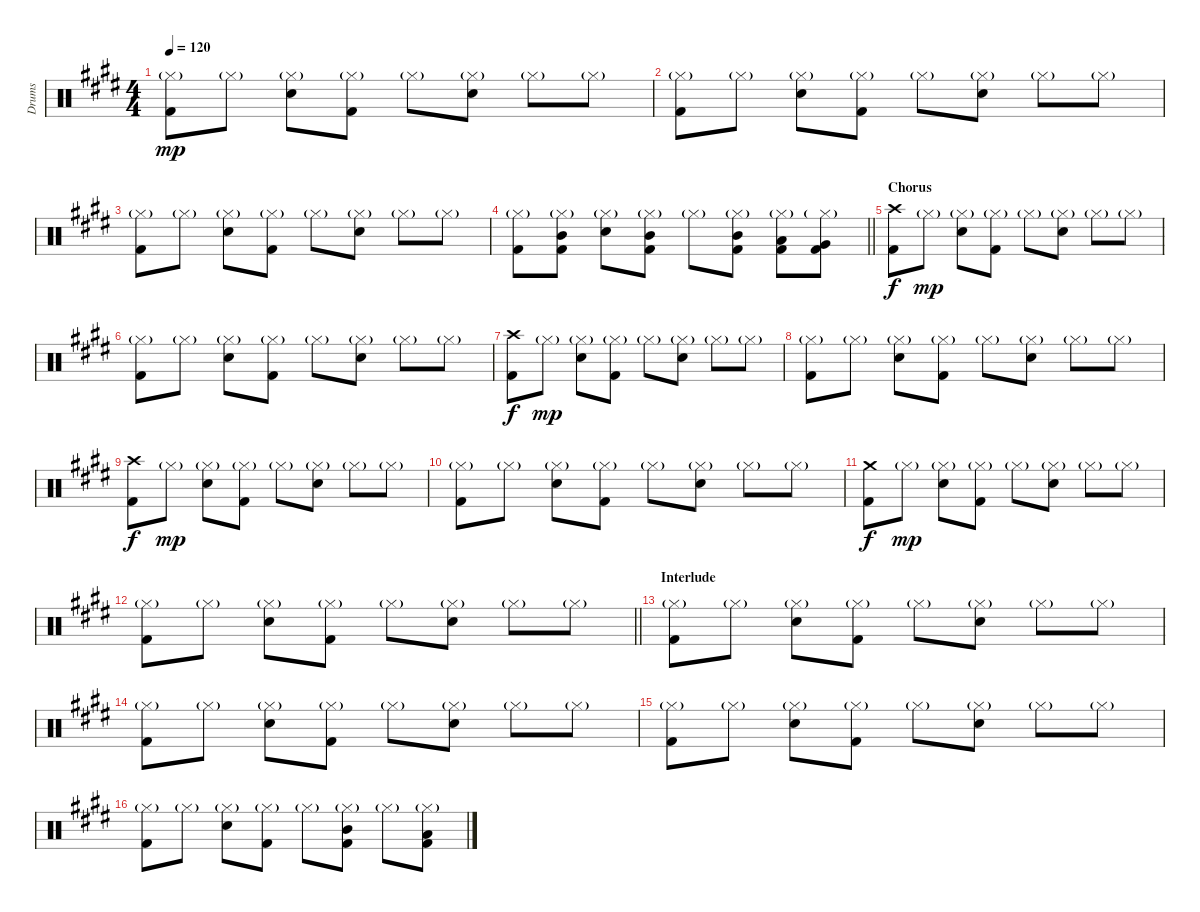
\track ("Drums" "Drums") {instrument percussion}
\staff {score}
\articulation defaults
\ts (4 4)
\tempo 120
\clef neutral
\ks e
("Hi-Hat (closed)"{g} "Kick (hit) 2").8{dy mp} "Hi-Hat (closed)"{g}.8 ("Hi-Hat (closed)"{g} "Snare (hit) 2").8 ("Hi-Hat (closed)"{g} "Kick (hit) 2").8 "Hi-Hat (closed)"{g}.8 ("Hi-Hat (closed)"{g} "Snare (hit) 2").8 "Hi-Hat (closed)"{g}.8 "Hi-Hat (closed)"{g}.8 |
("Hi-Hat (closed)"{g} "Kick (hit) 2").8 "Hi-Hat (closed)"{g}.8 ("Hi-Hat (closed)"{g} "Snare (hit) 2").8 ("Hi-Hat (closed)"{g} "Kick (hit) 2").8 "Hi-Hat (closed)"{g}.8 ("Hi-Hat (closed)"{g} "Snare (hit) 2").8 "Hi-Hat (closed)"{g}.8 "Hi-Hat (closed)"{g}.8 |
("Hi-Hat (closed)"{g} "Kick (hit) 2").8 "Hi-Hat (closed)"{g}.8 ("Hi-Hat (closed)"{g} "Snare (hit) 2").8 ("Hi-Hat (closed)"{g} "Kick (hit) 2").8 "Hi-Hat (closed)"{g}.8 ("Hi-Hat (closed)"{g} "Snare (hit) 2").8 "Hi-Hat (closed)"{g}.8 "Hi-Hat (closed)"{g}.8 |
\barLineRight lightlight
("Hi-Hat (closed)"{g} "Kick (hit) 2").8 ("Hi-Hat (closed)"{g} "Mid Tom (hit)" "Kick (hit) 2").8 ("Hi-Hat (closed)"{g} "Snare (hit) 2").8 ("Hi-Hat (closed)"{g} "Mid Tom (hit)" "Kick (hit) 2").8 "Hi-Hat (closed)"{g}.8 ("Hi-Hat (closed)"{g} "Mid Tom (hit)" "Kick (hit) 2").8 ("Hi-Hat (closed)"{g} "Low Tom (hit)" "Kick (hit) 2").8 ("Hi-Hat (closed)"{g} "Very Low Tom (hit)" "Kick (hit) 2").8 |
\section ("" "Chorus")
("Crash high (hit)" "Kick (hit) 2").8{dy f} "Hi-Hat (closed)"{g}.8{dy mp} ("Hi-Hat (closed)"{g} "Snare (hit) 2").8 ("Hi-Hat (closed)"{g} "Kick (hit) 2").8 "Hi-Hat (closed)"{g}.8 ("Hi-Hat (closed)"{g} "Snare (hit) 2").8 "Hi-Hat (closed)"{g}.8 "Hi-Hat (closed)"{g}.8 |
("Hi-Hat (closed)"{g} "Kick (hit) 2").8 "Hi-Hat (closed)"{g}.8 ("Hi-Hat (closed)"{g} "Snare (hit) 2").8 ("Hi-Hat (closed)"{g} "Kick (hit) 2").8 "Hi-Hat (closed)"{g}.8 ("Hi-Hat (closed)"{g} "Snare (hit) 2").8 "Hi-Hat (closed)"{g}.8 "Hi-Hat (closed)"{g}.8 |
("Crash high (hit)" "Kick (hit) 2").8{dy f} "Hi-Hat (closed)"{g}.8{dy mp} ("Hi-Hat (closed)"{g} "Snare (hit) 2").8 ("Hi-Hat (closed)"{g} "Kick (hit) 2").8 "Hi-Hat (closed)"{g}.8 ("Hi-Hat (closed)"{g} "Snare (hit) 2").8 "Hi-Hat (closed)"{g}.8 "Hi-Hat (closed)"{g}.8 |
("Hi-Hat (closed)"{g} "Kick (hit) 2").8 "Hi-Hat (closed)"{g}.8 ("Hi-Hat (closed)"{g} "Snare (hit) 2").8 ("Hi-Hat (closed)"{g} "Kick (hit) 2").8 "Hi-Hat (closed)"{g}.8 ("Hi-Hat (closed)"{g} "Snare (hit) 2").8 "Hi-Hat (closed)"{g}.8 "Hi-Hat (closed)"{g}.8 |
("Crash high (hit)" "Kick (hit) 2").8{dy f} "Hi-Hat (closed)"{g}.8{dy mp} ("Hi-Hat (closed)"{g} "Snare (hit) 2").8 ("Hi-Hat (closed)"{g} "Kick (hit) 2").8 "Hi-Hat (closed)"{g}.8 ("Hi-Hat (closed)"{g} "Snare (hit) 2").8 "Hi-Hat (closed)"{g}.8 "Hi-Hat (closed)"{g}.8 |
("Hi-Hat (closed)"{g} "Kick (hit) 2").8 "Hi-Hat (closed)"{g}.8 ("Hi-Hat (closed)"{g} "Snare (hit) 2").8 ("Hi-Hat (closed)"{g} "Kick (hit) 2").8 "Hi-Hat (closed)"{g}.8 ("Hi-Hat (closed)"{g} "Snare (hit) 2").8 "Hi-Hat (closed)"{g}.8 "Hi-Hat (closed)"{g}.8 |
("Crash medium (hit)" "Kick (hit) 2").8{dy f} "Hi-Hat (closed)"{g}.8{dy mp} ("Hi-Hat (closed)"{g} "Snare (hit) 2").8 ("Hi-Hat (closed)"{g} "Kick (hit) 2").8 "Hi-Hat (closed)"{g}.8 ("Hi-Hat (closed)"{g} "Snare (hit) 2").8 "Hi-Hat (closed)"{g}.8 "Hi-Hat (closed)"{g}.8 |
\barLineRight lightlight
("Hi-Hat (closed)"{g} "Kick (hit) 2").8 "Hi-Hat (closed)"{g}.8 ("Hi-Hat (closed)"{g} "Snare (hit) 2").8 ("Hi-Hat (closed)"{g} "Kick (hit) 2").8 "Hi-Hat (closed)"{g}.8 ("Hi-Hat (closed)"{g} "Snare (hit) 2").8 "Hi-Hat (closed)"{g}.8 "Hi-Hat (closed)"{g}.8 |
\section ("" "Interlude")
("Hi-Hat (closed)"{g} "Kick (hit) 2").8 "Hi-Hat (closed)"{g}.8 ("Hi-Hat (closed)"{g} "Snare (hit) 2").8 ("Hi-Hat (closed)"{g} "Kick (hit) 2").8 "Hi-Hat (closed)"{g}.8 ("Hi-Hat (closed)"{g} "Snare (hit) 2").8 "Hi-Hat (closed)"{g}.8 "Hi-Hat (closed)"{g}.8 |
("Hi-Hat (closed)"{g} "Kick (hit) 2").8 "Hi-Hat (closed)"{g}.8 ("Hi-Hat (closed)"{g} "Snare (hit) 2").8 ("Hi-Hat (closed)"{g} "Kick (hit) 2").8 "Hi-Hat (closed)"{g}.8 ("Hi-Hat (closed)"{g} "Snare (hit) 2").8 "Hi-Hat (closed)"{g}.8 "Hi-Hat (closed)"{g}.8 |
("Hi-Hat (closed)"{g} "Kick (hit) 2").8 "Hi-Hat (closed)"{g}.8 ("Hi-Hat (closed)"{g} "Snare (hit) 2").8 ("Hi-Hat (closed)"{g} "Kick (hit) 2").8 "Hi-Hat (closed)"{g}.8 ("Hi-Hat (closed)"{g} "Snare (hit) 2").8 "Hi-Hat (closed)"{g}.8 "Hi-Hat (closed)"{g}.8 |
("Hi-Hat (closed)"{g} "Kick (hit) 2").8 "Hi-Hat (closed)"{g}.8 ("Hi-Hat (closed)"{g} "Snare (hit) 2").8 ("Hi-Hat (closed)"{g} "Kick (hit) 2").8 "Hi-Hat (closed)"{g}.8 ("Hi-Hat (closed)"{g} "Mid Tom (hit)" "Kick (hit) 2").8 "Hi-Hat (closed)"{g}.8 ("Hi-Hat (closed)"{g} "Low Tom (hit)" "Kick (hit) 2").8
